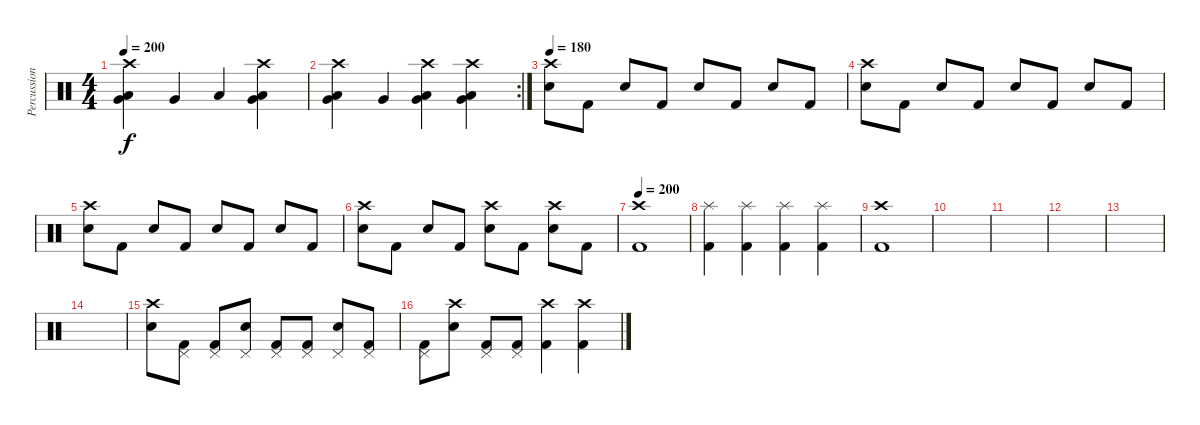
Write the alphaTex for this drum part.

\track ("Percussion" "Percussion") {instrument percussion}
\staff {score}
\articulation defaults
\ts (4 4)
\tempo 200
\clef neutral
\ks c
("Very Low Tom (hit)" "Low Floor Tom (hit)" "Crash high (hit)").4{dy f} "Very Low Tom (hit)".4 "Low Floor Tom (hit)".4 ("Very Low Tom (hit)" "Low Floor Tom (hit)" "Crash high (hit)").4 |
\rc 2
("Very Low Tom (hit)" "Low Floor Tom (hit)" "Crash high (hit)").4 "Very Low Tom (hit)".4 ("Very Low Tom (hit)" "Low Floor Tom (hit)" "Crash high (hit)").4 ("Very Low Tom (hit)" "Low Floor Tom (hit)" "Crash high (hit)").4 |
\tempo 180
("Electric Snare (hit)" "Crash high (hit)").8 "Kick (hit) 2".8 "Electric Snare (hit)".8 "Kick (hit) 2".8 "Electric Snare (hit)".8 "Kick (hit) 2".8 "Electric Snare (hit)".8 "Kick (hit) 2".8 |
("Electric Snare (hit)" "Crash high (hit)").8 "Kick (hit) 2".8 "Electric Snare (hit)".8 "Kick (hit) 2".8 "Electric Snare (hit)".8 "Kick (hit) 2".8 "Electric Snare (hit)".8 "Kick (hit) 2".8 |
("Electric Snare (hit)" "Crash high (hit)").8 "Kick (hit) 2".8 "Electric Snare (hit)".8 "Kick (hit) 2".8 "Electric Snare (hit)".8 "Kick (hit) 2".8 "Electric Snare (hit)".8 "Kick (hit) 2".8 |
("Electric Snare (hit)" "Crash high (hit)").8 "Kick (hit) 2".8 "Electric Snare (hit)".8 "Kick (hit) 2".8 ("Electric Snare (hit)" "Crash high (hit)").8 "Kick (hit) 2".8 ("Electric Snare (hit)" "Crash high (hit)").8 "Kick (hit) 2".8 |
\tempo 200
("Kick (hit) 2" "Crash high (hit)").1 |
("Kick (hit) 2" "Splash (hit)").4 ("Kick (hit) 2" "Splash (hit)").4 ("Kick (hit) 2" "Splash (hit)").4 ("Kick (hit) 2" "Splash (hit)").4 |
("Kick (hit) 2" "Crash high (hit)").1 |
|
|
|
|
|
("Electric Snare (hit)" "Crash high (hit)").8 ("Kick (hit) 2" "Pedal Hi-Hat (hit)").8 ("Kick (hit) 2" "Pedal Hi-Hat (hit)").8 ("Electric Snare (hit)" "Pedal Hi-Hat (hit)").8 ("Kick (hit) 2" "Pedal Hi-Hat (hit)").8 ("Kick (hit) 2" "Pedal Hi-Hat (hit)").8 ("Electric Snare (hit)" "Pedal Hi-Hat (hit)").8 ("Kick (hit) 2" "Pedal Hi-Hat (hit)").8 |
("Kick (hit) 2" "Pedal Hi-Hat (hit)").8 ("Electric Snare (hit)" "Crash high (hit)").8 ("Kick (hit) 2" "Pedal Hi-Hat (hit)").8 ("Kick (hit) 2" "Pedal Hi-Hat (hit)").8 ("Kick (hit) 2" "Crash high (hit)").4 ("Kick (hit) 2" "Crash high (hit)").4
